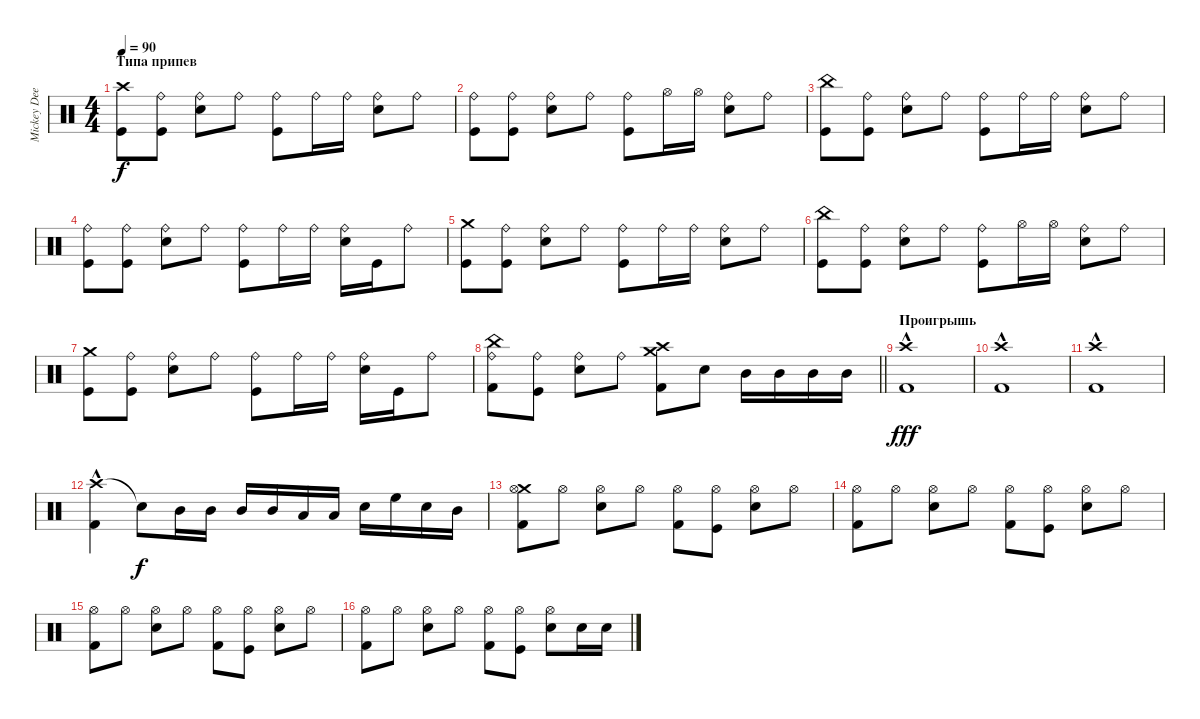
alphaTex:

\track ("Mickey Dee" "Mickey Dee") {instrument percussion}
\staff {score}
\articulation defaults
\ts (4 4)
\section ("" "Типа припев")
\tempo 90
\clef neutral
\ks c
("Kick (hit)" "Crash high (hit)").8{dy f} ("Kick (hit)" "Ride (bell)").8 ("Ride (bell)" "Snare (hit) 2").8 "Ride (bell)".8 ("Ride (bell)" "Kick (hit)").8 "Ride (bell)".16 "Ride (bell)".16 ("Ride (bell)" "Snare (hit) 2").8 "Ride (bell)".8 |
("Kick (hit)" "Ride (bell)").8 ("Ride (bell)" "Kick (hit)").8 ("Snare (hit) 2" "Ride (bell)").8 "Ride (bell)".8 ("Kick (hit)" "Ride (bell)").8 "Hi-Hat (open)".16 "Hi-Hat (open)".16 ("Snare (hit) 2" "Ride (bell)").8 "Ride (bell)".8 |
("Kick (hit)" "China (hit)").8 ("Kick (hit)" "Ride (bell)").8 ("Ride (bell)" "Snare (hit) 2").8 "Ride (bell)".8 ("Ride (bell)" "Kick (hit)").8 "Ride (bell)".16 "Ride (bell)".16 ("Ride (bell)" "Snare (hit) 2").8 "Ride (bell)".8 |
("Kick (hit)" "Ride (bell)").8 ("Kick (hit)" "Ride (bell)").8 ("Ride (bell)" "Snare (hit) 2").8 "Ride (bell)".8 ("Ride (bell)" "Kick (hit)").8 "Ride (bell)".16 "Ride (bell)".16 ("Ride (bell)" "Snare (hit) 2").16 "Kick (hit)".16 "Ride (bell)".8 |
("Kick (hit)" "Crash medium (hit)").8 ("Kick (hit)" "Ride (bell)").8 ("Ride (bell)" "Snare (hit) 2").8 "Ride (bell)".8 ("Ride (bell)" "Kick (hit)").8 "Ride (bell)".16 "Ride (bell)".16 ("Ride (bell)" "Snare (hit) 2").8 "Ride (bell)".8 |
("Kick (hit)" "China (hit)").8 ("Kick (hit)" "Ride (bell)").8 ("Ride (bell)" "Snare (hit) 2").8 "Ride (bell)".8 ("Ride (bell)" "Kick (hit)").8 "Hi-Hat (open)".16 "Hi-Hat (open)".16 ("Ride (bell)" "Snare (hit) 2").8 "Ride (bell)".8 |
("Kick (hit)" "Crash medium (hit)").8 ("Kick (hit)" "Ride (bell)").8 ("Ride (bell)" "Snare (hit) 2").8 "Ride (bell)".8 ("Ride (bell)" "Kick (hit)").8 "Ride (bell)".16 "Ride (bell)".16 ("Ride (bell)" "Snare (hit) 2").16 "Kick (hit)".16 "Ride (bell)".8 |
\barLineRight lightlight
("China (hit)" "Ride (bell)" "Kick (hit) 2").8 ("Kick (hit)" "Ride (bell)").8 ("Ride (bell)" "Snare (hit) 2").8 "Ride (bell)".8 ("Crash high (hit)" "Crash medium (hit)" "Kick (hit) 2").8 "Snare (hit) 2".8 "Mid Tom (hit)".16 "Mid Tom (hit)".16 "Mid Tom (hit)".16 "Mid Tom (hit)".16 |
\section ("" "Проигрышь")
("Crash high (hit)"{hac} "Kick (hit) 2"{hac}).1{dy fff} |
("Crash high (hit)"{hac} "Kick (hit) 2"{hac}).1 |
("Crash high (hit)"{hac} "Kick (hit) 2"{hac}).1 |
("Crash high (hit)"{hac} "Kick (hit) 2"{hac}).4 "Snare (hit) 2"{t}.8{dy f} "Mid Tom (hit)".16 "Mid Tom (hit)".16 "Mid Tom (hit)".16 "Mid Tom (hit)".16 "Low Tom (hit)".16 "Low Tom (hit)".16 "Snare (hit) 2".16 "High Floor Tom (hit)".16 "Snare (hit) 2".16 "Mid Tom (hit)".16 |
("Crash medium (hit)" "Hi-Hat (open)" "Kick (hit) 2").8 "Hi-Hat (open)".8 ("Hi-Hat (open)" "Snare (hit) 2").8 "Hi-Hat (open)".8 ("Hi-Hat (open)" "Kick (hit) 2").8 ("Kick (hit)" "Hi-Hat (open)").8 ("Hi-Hat (open)" "Snare (hit) 2").8 "Hi-Hat (open)".8 |
("Hi-Hat (open)" "Kick (hit) 2").8 "Hi-Hat (open)".8 ("Hi-Hat (open)" "Snare (hit) 2").8 "Hi-Hat (open)".8 ("Hi-Hat (open)" "Kick (hit) 2").8 ("Kick (hit)" "Hi-Hat (open)").8 ("Hi-Hat (open)" "Snare (hit) 2").8 "Hi-Hat (open)".8 |
("Hi-Hat (open)" "Kick (hit) 2").8 "Hi-Hat (open)".8 ("Hi-Hat (open)" "Snare (hit) 2").8 "Hi-Hat (open)".8 ("Hi-Hat (open)" "Kick (hit) 2").8 ("Kick (hit)" "Hi-Hat (open)").8 ("Hi-Hat (open)" "Snare (hit) 2").8 "Hi-Hat (open)".8 |
("Hi-Hat (open)" "Kick (hit) 2").8 "Hi-Hat (open)".8 ("Hi-Hat (open)" "Snare (hit) 2").8 "Hi-Hat (open)".8 ("Hi-Hat (open)" "Kick (hit) 2").8 ("Kick (hit)" "Hi-Hat (open)").8 ("Hi-Hat (open)" "Snare (hit) 2").8 "Snare (hit) 2".16 "Snare (hit) 2".16
